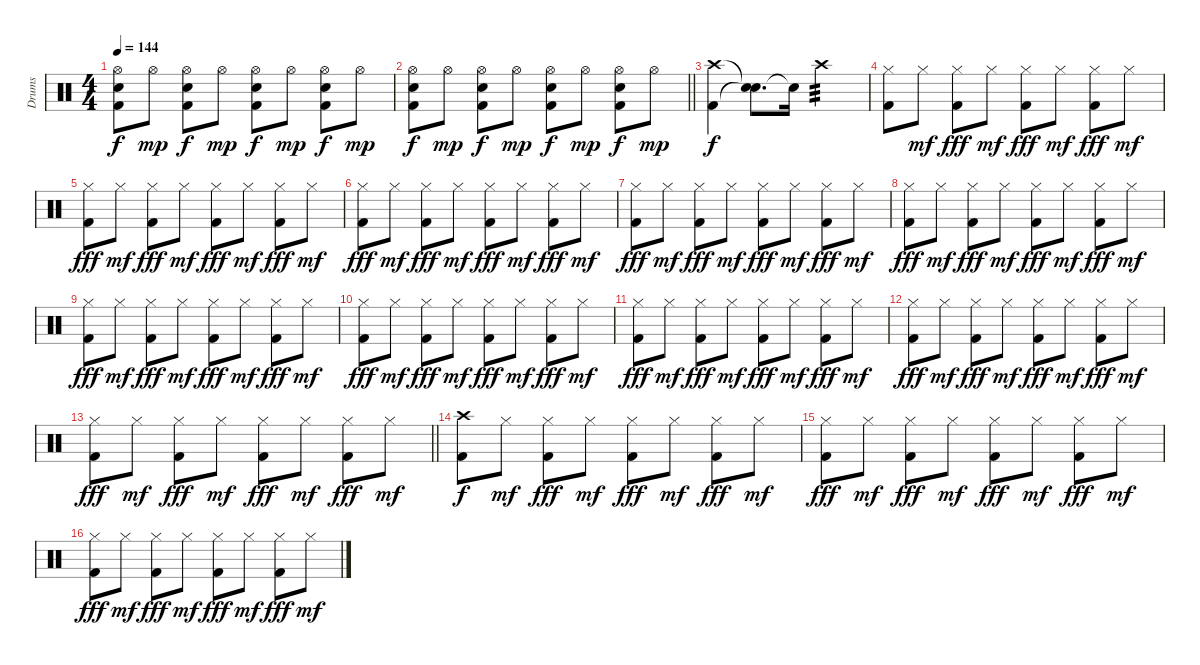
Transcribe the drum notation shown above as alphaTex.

\track ("Drums" "Drums") {instrument percussion}
\staff {score}
\articulation defaults
\ts (4 4)
\tempo 144
\clef neutral
\ks c
("Hi-Hat (open)" "Snare (hit) 2" "Kick (hit) 2").8{dy f} "Hi-Hat (open)".8{dy mp} ("Hi-Hat (open)" "Snare (hit) 2" "Kick (hit) 2").8{dy f} "Hi-Hat (open)".8{dy mp} ("Hi-Hat (open)" "Snare (hit) 2" "Kick (hit) 2").8{dy f} "Hi-Hat (open)".8{dy mp} ("Hi-Hat (open)" "Snare (hit) 2" "Kick (hit) 2").8{dy f} "Hi-Hat (open)".8{dy mp} |
\barLineRight lightlight
("Hi-Hat (open)" "Snare (hit) 2" "Kick (hit) 2").8{dy f} "Hi-Hat (open)".8{dy mp} ("Hi-Hat (open)" "Snare (hit) 2" "Kick (hit) 2").8{dy f} "Hi-Hat (open)".8{dy mp} ("Hi-Hat (open)" "Snare (hit) 2" "Kick (hit) 2").8{dy f} "Hi-Hat (open)".8{dy mp} ("Hi-Hat (open)" "Snare (hit) 2" "Kick (hit) 2").8{dy f} "Hi-Hat (open)".8{dy mp} |
("Crash high (hit)" "Kick (hit) 2").4{dy f} ("Snare (hit)"{t} "Snare (hit)"{t}).8{d} "Snare (hit)"{t}.16{volume 8} "Crash high (hit)".2{tp 3 volume 13} |
("Hi-Hat (closed)" "Kick (hit) 2").8 "Hi-Hat (closed)".8{dy mf} ("Hi-Hat (closed)" "Kick (hit) 2").8{dy fff} "Hi-Hat (closed)".8{dy mf} ("Hi-Hat (closed)" "Kick (hit) 2").8{dy fff} "Hi-Hat (closed)".8{dy mf} ("Hi-Hat (closed)" "Kick (hit) 2").8{dy fff} "Hi-Hat (closed)".8{dy mf} |
("Hi-Hat (closed)" "Kick (hit) 2").8{dy fff} "Hi-Hat (closed)".8{dy mf} ("Hi-Hat (closed)" "Kick (hit) 2").8{dy fff} "Hi-Hat (closed)".8{dy mf} ("Hi-Hat (closed)" "Kick (hit) 2").8{dy fff} "Hi-Hat (closed)".8{dy mf} ("Hi-Hat (closed)" "Kick (hit) 2").8{dy fff} "Hi-Hat (closed)".8{dy mf} |
("Hi-Hat (closed)" "Kick (hit) 2").8{dy fff} "Hi-Hat (closed)".8{dy mf} ("Hi-Hat (closed)" "Kick (hit) 2").8{dy fff} "Hi-Hat (closed)".8{dy mf} ("Hi-Hat (closed)" "Kick (hit) 2").8{dy fff} "Hi-Hat (closed)".8{dy mf} ("Hi-Hat (closed)" "Kick (hit) 2").8{dy fff} "Hi-Hat (closed)".8{dy mf} |
("Hi-Hat (closed)" "Kick (hit) 2").8{dy fff} "Hi-Hat (closed)".8{dy mf} ("Hi-Hat (closed)" "Kick (hit) 2").8{dy fff} "Hi-Hat (closed)".8{dy mf} ("Hi-Hat (closed)" "Kick (hit) 2").8{dy fff} "Hi-Hat (closed)".8{dy mf} ("Hi-Hat (closed)" "Kick (hit) 2").8{dy fff} "Hi-Hat (closed)".8{dy mf} |
("Hi-Hat (closed)" "Kick (hit) 2").8{dy fff} "Hi-Hat (closed)".8{dy mf} ("Hi-Hat (closed)" "Kick (hit) 2").8{dy fff} "Hi-Hat (closed)".8{dy mf} ("Hi-Hat (closed)" "Kick (hit) 2").8{dy fff} "Hi-Hat (closed)".8{dy mf} ("Hi-Hat (closed)" "Kick (hit) 2").8{dy fff} "Hi-Hat (closed)".8{dy mf} |
("Hi-Hat (closed)" "Kick (hit) 2").8{dy fff} "Hi-Hat (closed)".8{dy mf} ("Hi-Hat (closed)" "Kick (hit) 2").8{dy fff} "Hi-Hat (closed)".8{dy mf} ("Hi-Hat (closed)" "Kick (hit) 2").8{dy fff} "Hi-Hat (closed)".8{dy mf} ("Hi-Hat (closed)" "Kick (hit) 2").8{dy fff} "Hi-Hat (closed)".8{dy mf} |
("Hi-Hat (closed)" "Kick (hit) 2").8{dy fff} "Hi-Hat (closed)".8{dy mf} ("Hi-Hat (closed)" "Kick (hit) 2").8{dy fff} "Hi-Hat (closed)".8{dy mf} ("Hi-Hat (closed)" "Kick (hit) 2").8{dy fff} "Hi-Hat (closed)".8{dy mf} ("Hi-Hat (closed)" "Kick (hit) 2").8{dy fff} "Hi-Hat (closed)".8{dy mf} |
("Hi-Hat (closed)" "Kick (hit) 2").8{dy fff} "Hi-Hat (closed)".8{dy mf} ("Hi-Hat (closed)" "Kick (hit) 2").8{dy fff} "Hi-Hat (closed)".8{dy mf} ("Hi-Hat (closed)" "Kick (hit) 2").8{dy fff} "Hi-Hat (closed)".8{dy mf} ("Hi-Hat (closed)" "Kick (hit) 2").8{dy fff} "Hi-Hat (closed)".8{dy mf} |
("Hi-Hat (closed)" "Kick (hit) 2").8{dy fff} "Hi-Hat (closed)".8{dy mf} ("Hi-Hat (closed)" "Kick (hit) 2").8{dy fff} "Hi-Hat (closed)".8{dy mf} ("Hi-Hat (closed)" "Kick (hit) 2").8{dy fff} "Hi-Hat (closed)".8{dy mf} ("Hi-Hat (closed)" "Kick (hit) 2").8{dy fff} "Hi-Hat (closed)".8{dy mf} |
\barLineRight lightlight
("Hi-Hat (closed)" "Kick (hit) 2").8{dy fff} "Hi-Hat (closed)".8{dy mf} ("Hi-Hat (closed)" "Kick (hit) 2").8{dy fff} "Hi-Hat (closed)".8{dy mf} ("Hi-Hat (closed)" "Kick (hit) 2").8{dy fff} "Hi-Hat (closed)".8{dy mf} ("Hi-Hat (closed)" "Kick (hit) 2").8{dy fff} "Hi-Hat (closed)".8{dy mf} |
("Crash high (hit)" "Kick (hit) 2").8{dy f} "Hi-Hat (closed)".8{dy mf} ("Hi-Hat (closed)" "Kick (hit) 2").8{dy fff} "Hi-Hat (closed)".8{dy mf} ("Hi-Hat (closed)" "Kick (hit) 2").8{dy fff} "Hi-Hat (closed)".8{dy mf} ("Hi-Hat (closed)" "Kick (hit) 2").8{dy fff} "Hi-Hat (closed)".8{dy mf} |
("Hi-Hat (closed)" "Kick (hit) 2").8{dy fff} "Hi-Hat (closed)".8{dy mf} ("Hi-Hat (closed)" "Kick (hit) 2").8{dy fff} "Hi-Hat (closed)".8{dy mf} ("Hi-Hat (closed)" "Kick (hit) 2").8{dy fff} "Hi-Hat (closed)".8{dy mf} ("Hi-Hat (closed)" "Kick (hit) 2").8{dy fff} "Hi-Hat (closed)".8{dy mf} |
("Hi-Hat (closed)" "Kick (hit) 2").8{dy fff} "Hi-Hat (closed)".8{dy mf} ("Hi-Hat (closed)" "Kick (hit) 2").8{dy fff} "Hi-Hat (closed)".8{dy mf} ("Hi-Hat (closed)" "Kick (hit) 2").8{dy fff} "Hi-Hat (closed)".8{dy mf} ("Hi-Hat (closed)" "Kick (hit) 2").8{dy fff} "Hi-Hat (closed)".8{dy mf}
